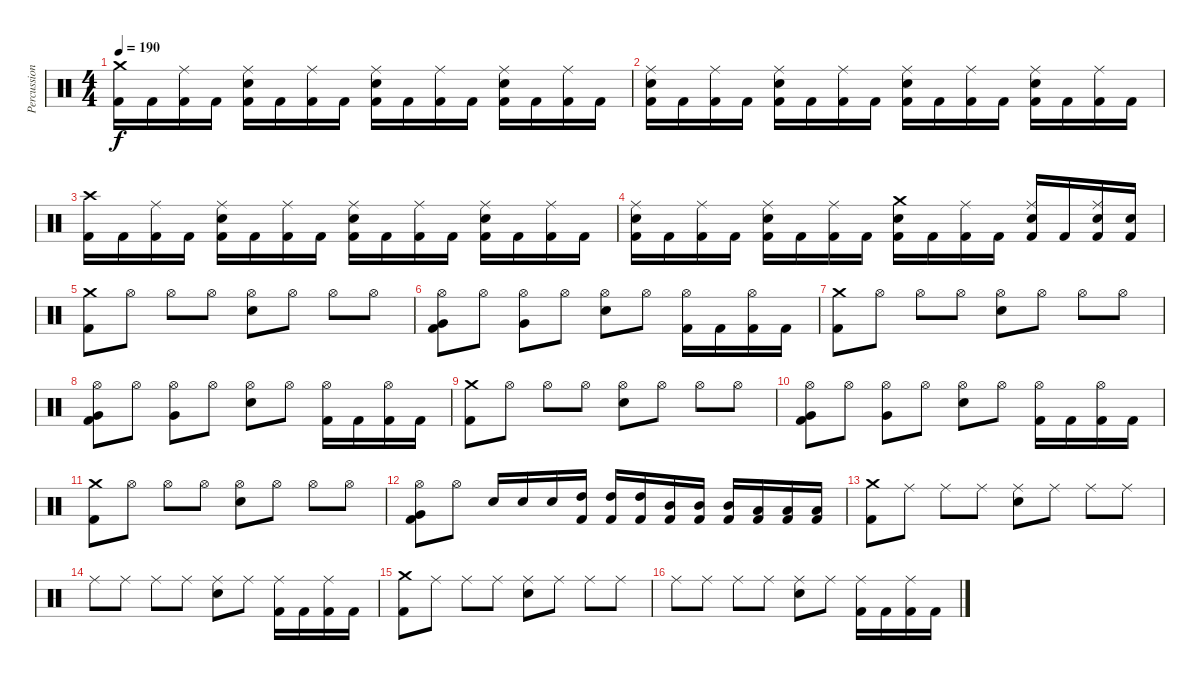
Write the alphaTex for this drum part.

\track ("Percussions" "Percussion") {instrument percussion}
\staff {score}
\articulation defaults
\ts (4 4)
\tempo 190
\clef neutral
\ks c
("Crash medium (hit)" "Kick (hit) 2").16{dy f} "Kick (hit) 2".16 ("Ride (middle)" "Kick (hit) 2").16 "Kick (hit) 2".16 ("Ride (middle)" "Electric Snare (hit)" "Kick (hit) 2").16 "Kick (hit) 2".16 ("Ride (middle)" "Kick (hit) 2").16 "Kick (hit) 2".16 ("Ride (middle)" "Electric Snare (hit)" "Kick (hit) 2").16 "Kick (hit) 2".16 ("Ride (middle)" "Kick (hit) 2").16 "Kick (hit) 2".16 ("Ride (middle)" "Electric Snare (hit)" "Kick (hit) 2").16 "Kick (hit) 2".16 ("Ride (middle)" "Kick (hit) 2").16 "Kick (hit) 2".16 |
("Ride (middle)" "Electric Snare (hit)" "Kick (hit) 2").16 "Kick (hit) 2".16 ("Ride (middle)" "Kick (hit) 2").16 "Kick (hit) 2".16 ("Ride (middle)" "Electric Snare (hit)" "Kick (hit) 2").16 "Kick (hit) 2".16 ("Ride (middle)" "Kick (hit) 2").16 "Kick (hit) 2".16 ("Ride (middle)" "Electric Snare (hit)" "Kick (hit) 2").16 "Kick (hit) 2".16 ("Ride (middle)" "Kick (hit) 2").16 "Kick (hit) 2".16 ("Ride (middle)" "Electric Snare (hit)" "Kick (hit) 2").16 "Kick (hit) 2".16 ("Ride (middle)" "Kick (hit) 2").16 "Kick (hit) 2".16 |
("Crash high (hit)" "Kick (hit) 2").16 "Kick (hit) 2".16 ("Ride (middle)" "Kick (hit) 2").16 "Kick (hit) 2".16 ("Ride (middle)" "Electric Snare (hit)" "Kick (hit) 2").16 "Kick (hit) 2".16 ("Ride (middle)" "Kick (hit) 2").16 "Kick (hit) 2".16 ("Ride (middle)" "Electric Snare (hit)" "Kick (hit) 2").16 "Kick (hit) 2".16 ("Ride (middle)" "Kick (hit) 2").16 "Kick (hit) 2".16 ("Ride (middle)" "Electric Snare (hit)" "Kick (hit) 2").16 "Kick (hit) 2".16 ("Ride (middle)" "Kick (hit) 2").16 "Kick (hit) 2".16 |
("Ride (middle)" "Electric Snare (hit)" "Kick (hit) 2").16 "Kick (hit) 2".16 ("Ride (middle)" "Kick (hit) 2").16 "Kick (hit) 2".16 ("Ride (middle)" "Electric Snare (hit)" "Kick (hit) 2").16 "Kick (hit) 2".16 ("Ride (middle)" "Kick (hit) 2").16 "Kick (hit) 2".16 ("Crash medium (hit)" "Electric Snare (hit)" "Kick (hit) 2").16 "Kick (hit) 2".16 ("Ride (middle)" "Kick (hit) 2").16 "Kick (hit) 2".16 ("Ride (middle)" "Electric Snare (hit)" "Kick (hit) 2").16 "Kick (hit) 2".16 ("Ride (middle)" "Electric Snare (hit)" "Kick (hit) 2").16 ("Electric Snare (hit)" "Kick (hit) 2").16 |
("Crash medium (hit)" "Kick (hit) 2").8 "Hi-Hat (open)".8 "Hi-Hat (open)".8 "Hi-Hat (open)".8 ("Hi-Hat (open)" "Electric Snare (hit)").8 "Hi-Hat (open)".8 "Hi-Hat (open)".8 "Hi-Hat (open)".8 |
("Hi-Hat (open)" "Very Low Tom (hit)" "Kick (hit) 2").8 "Hi-Hat (open)".8 ("Hi-Hat (open)" "Very Low Tom (hit)").8 "Hi-Hat (open)".8 ("Hi-Hat (open)" "Electric Snare (hit)").8 "Hi-Hat (open)".8 ("Hi-Hat (open)" "Kick (hit) 2").16 "Kick (hit) 2".16 ("Hi-Hat (open)" "Kick (hit) 2").16 "Kick (hit) 2".16 |
("Crash medium (hit)" "Kick (hit) 2").8 "Hi-Hat (open)".8 "Hi-Hat (open)".8 "Hi-Hat (open)".8 ("Hi-Hat (open)" "Electric Snare (hit)").8 "Hi-Hat (open)".8 "Hi-Hat (open)".8 "Hi-Hat (open)".8 |
("Hi-Hat (open)" "Very Low Tom (hit)" "Kick (hit) 2").8 "Hi-Hat (open)".8 ("Hi-Hat (open)" "Very Low Tom (hit)").8 "Hi-Hat (open)".8 ("Hi-Hat (open)" "Electric Snare (hit)").8 "Hi-Hat (open)".8 ("Hi-Hat (open)" "Kick (hit) 2").16 "Kick (hit) 2".16 ("Hi-Hat (open)" "Kick (hit) 2").16 "Kick (hit) 2".16 |
("Crash medium (hit)" "Kick (hit) 2").8 "Hi-Hat (open)".8 "Hi-Hat (open)".8 "Hi-Hat (open)".8 ("Hi-Hat (open)" "Electric Snare (hit)").8 "Hi-Hat (open)".8 "Hi-Hat (open)".8 "Hi-Hat (open)".8 |
("Hi-Hat (open)" "Very Low Tom (hit)" "Kick (hit) 2").8 "Hi-Hat (open)".8 ("Hi-Hat (open)" "Very Low Tom (hit)").8 "Hi-Hat (open)".8 ("Hi-Hat (open)" "Electric Snare (hit)").8 "Hi-Hat (open)".8 ("Hi-Hat (open)" "Kick (hit) 2").16 "Kick (hit) 2".16 ("Hi-Hat (open)" "Kick (hit) 2").16 "Kick (hit) 2".16 |
("Crash medium (hit)" "Kick (hit) 2").8 "Hi-Hat (open)".8 "Hi-Hat (open)".8 "Hi-Hat (open)".8 ("Hi-Hat (open)" "Electric Snare (hit)").8 "Hi-Hat (open)".8 "Hi-Hat (open)".8 "Hi-Hat (open)".8 |
("Hi-Hat (open)" "Very Low Tom (hit)" "Kick (hit) 2").8 "Hi-Hat (open)".8 "Electric Snare (hit)".16 "Electric Snare (hit)".16 "Electric Snare (hit)".16 ("High Tom (hit)" "Kick (hit) 2").16 ("High Tom (hit)" "Kick (hit) 2").16 ("High Tom (hit)" "Kick (hit) 2").16 ("Mid Tom (hit)" "Kick (hit) 2").16 ("Mid Tom (hit)" "Kick (hit) 2").16 ("Mid Tom (hit)" "Kick (hit) 2").16 ("Low Tom (hit)" "Kick (hit) 2").16 ("Low Tom (hit)" "Kick (hit) 2").16 ("Low Tom (hit)" "Kick (hit) 2").16 |
("Crash medium (hit)" "Kick (hit) 2").8 "Ride (middle)".8 "Ride (middle)".8 "Ride (middle)".8 ("Ride (middle)" "Electric Snare (hit)").8 "Ride (middle)".8 "Ride (middle)".8 "Ride (middle)".8 |
"Ride (middle)".8 "Ride (middle)".8 "Ride (middle)".8 "Ride (middle)".8 ("Ride (middle)" "Electric Snare (hit)").8 "Ride (middle)".8 ("Ride (middle)" "Kick (hit) 2").16 "Kick (hit) 2".16 ("Ride (middle)" "Kick (hit) 2").16 "Kick (hit) 2".16 |
("Crash medium (hit)" "Kick (hit) 2").8 "Ride (middle)".8 "Ride (middle)".8 "Ride (middle)".8 ("Ride (middle)" "Electric Snare (hit)").8 "Ride (middle)".8 "Ride (middle)".8 "Ride (middle)".8 |
"Ride (middle)".8 "Ride (middle)".8 "Ride (middle)".8 "Ride (middle)".8 ("Ride (middle)" "Electric Snare (hit)").8 "Ride (middle)".8 ("Ride (middle)" "Kick (hit) 2").16 "Kick (hit) 2".16 ("Ride (middle)" "Kick (hit) 2").16 "Kick (hit) 2".16
